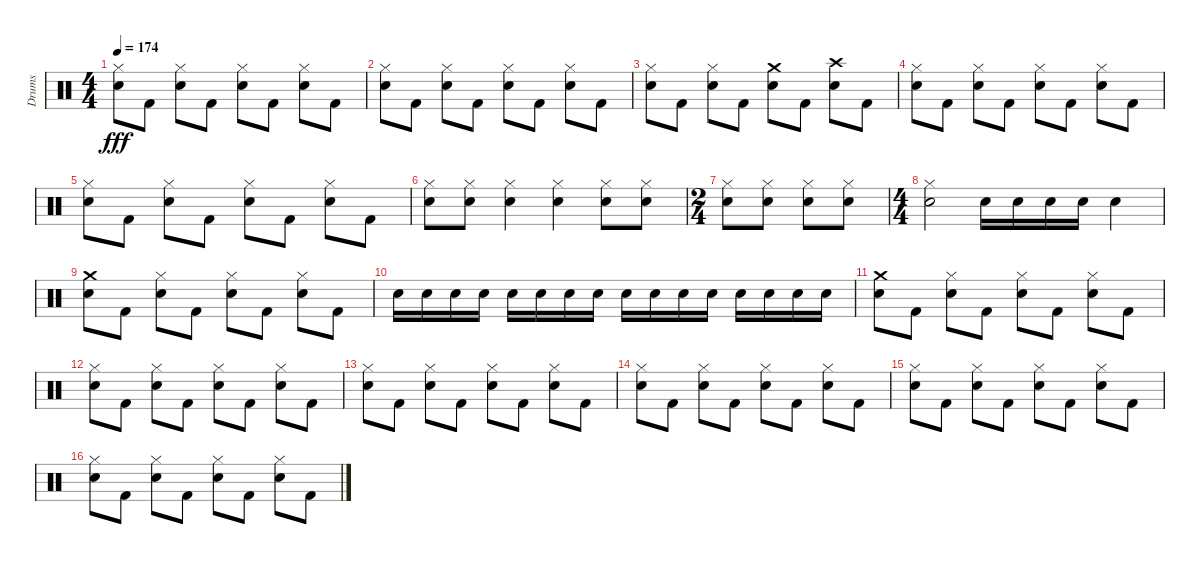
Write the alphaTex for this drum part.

\track ("Drums" "Drums") {instrument percussion}
\staff {score}
\articulation defaults
\ts (4 4)
\tempo 174
\clef neutral
\ks c
("Hi-Hat (closed)" "Electric Snare (hit)").8{dy fff} "Kick (hit) 2".8 ("Hi-Hat (closed)" "Electric Snare (hit)").8 "Kick (hit) 2".8 ("Hi-Hat (closed)" "Electric Snare (hit)").8 "Kick (hit) 2".8 ("Hi-Hat (closed)" "Electric Snare (hit)").8 "Kick (hit) 2".8 |
("Hi-Hat (closed)" "Electric Snare (hit)").8 "Kick (hit) 2".8 ("Hi-Hat (closed)" "Electric Snare (hit)").8 "Kick (hit) 2".8 ("Hi-Hat (closed)" "Electric Snare (hit)").8 "Kick (hit) 2".8 ("Hi-Hat (closed)" "Electric Snare (hit)").8 "Kick (hit) 2".8 |
("Hi-Hat (closed)" "Electric Snare (hit)").8 "Kick (hit) 2".8 ("Hi-Hat (closed)" "Electric Snare (hit)").8 "Kick (hit) 2".8 ("Crash medium (hit)" "Electric Snare (hit)").8 "Kick (hit) 2".8 ("Crash high (hit)" "Electric Snare (hit)").8 "Kick (hit) 2".8 |
("Hi-Hat (closed)" "Electric Snare (hit)").8 "Kick (hit) 2".8 ("Hi-Hat (closed)" "Electric Snare (hit)").8 "Kick (hit) 2".8 ("Hi-Hat (closed)" "Electric Snare (hit)").8 "Kick (hit) 2".8 ("Hi-Hat (closed)" "Electric Snare (hit)").8 "Kick (hit) 2".8 |
("Hi-Hat (closed)" "Electric Snare (hit)").8 "Kick (hit) 2".8 ("Hi-Hat (closed)" "Electric Snare (hit)").8 "Kick (hit) 2".8 ("Hi-Hat (closed)" "Electric Snare (hit)").8 "Kick (hit) 2".8 ("Hi-Hat (closed)" "Electric Snare (hit)").8 "Kick (hit) 2".8 |
("Hi-Hat (closed)" "Electric Snare (hit)").8 ("Hi-Hat (closed)" "Electric Snare (hit)").8 ("Hi-Hat (closed)" "Electric Snare (hit)").4 ("Hi-Hat (closed)" "Electric Snare (hit)").4 ("Hi-Hat (closed)" "Electric Snare (hit)").8 ("Hi-Hat (closed)" "Electric Snare (hit)").8 |
\ts (2 4)
("Hi-Hat (closed)" "Electric Snare (hit)").8 ("Hi-Hat (closed)" "Electric Snare (hit)").8 ("Hi-Hat (closed)" "Electric Snare (hit)").8 ("Hi-Hat (closed)" "Electric Snare (hit)").8 |
\ts (4 4)
("Hi-Hat (closed)" "Electric Snare (hit)").2 "Electric Snare (hit)".16 "Electric Snare (hit)".16 "Electric Snare (hit)".16 "Electric Snare (hit)".16 "Electric Snare (hit)".4 |
("Crash medium (hit)" "Electric Snare (hit)").8 "Kick (hit) 2".8 ("Hi-Hat (closed)" "Electric Snare (hit)").8 "Kick (hit) 2".8 ("Hi-Hat (closed)" "Electric Snare (hit)").8 "Kick (hit) 2".8 ("Hi-Hat (closed)" "Electric Snare (hit)").8 "Kick (hit) 2".8 |
"Electric Snare (hit)".16 "Electric Snare (hit)".16 "Electric Snare (hit)".16 "Electric Snare (hit)".16 "Electric Snare (hit)".16 "Electric Snare (hit)".16 "Electric Snare (hit)".16 "Electric Snare (hit)".16 "Electric Snare (hit)".16 "Electric Snare (hit)".16 "Electric Snare (hit)".16 "Electric Snare (hit)".16 "Electric Snare (hit)".16 "Electric Snare (hit)".16 "Electric Snare (hit)".16 "Electric Snare (hit)".16 |
("Crash medium (hit)" "Electric Snare (hit)").8 "Kick (hit) 2".8 ("Hi-Hat (closed)" "Electric Snare (hit)").8 "Kick (hit) 2".8 ("Hi-Hat (closed)" "Electric Snare (hit)").8 "Kick (hit) 2".8 ("Hi-Hat (closed)" "Electric Snare (hit)").8 "Kick (hit) 2".8 |
("Hi-Hat (closed)" "Electric Snare (hit)").8 "Kick (hit) 2".8 ("Hi-Hat (closed)" "Electric Snare (hit)").8 "Kick (hit) 2".8 ("Hi-Hat (closed)" "Electric Snare (hit)").8 "Kick (hit) 2".8 ("Hi-Hat (closed)" "Electric Snare (hit)").8 "Kick (hit) 2".8 |
("Hi-Hat (closed)" "Electric Snare (hit)").8 "Kick (hit) 2".8 ("Hi-Hat (closed)" "Electric Snare (hit)").8 "Kick (hit) 2".8 ("Hi-Hat (closed)" "Electric Snare (hit)").8 "Kick (hit) 2".8 ("Hi-Hat (closed)" "Electric Snare (hit)").8 "Kick (hit) 2".8 |
("Hi-Hat (closed)" "Electric Snare (hit)").8 "Kick (hit) 2".8 ("Hi-Hat (closed)" "Electric Snare (hit)").8 "Kick (hit) 2".8 ("Hi-Hat (closed)" "Electric Snare (hit)").8 "Kick (hit) 2".8 ("Hi-Hat (closed)" "Electric Snare (hit)").8 "Kick (hit) 2".8 |
("Hi-Hat (closed)" "Electric Snare (hit)").8 "Kick (hit) 2".8 ("Hi-Hat (closed)" "Electric Snare (hit)").8 "Kick (hit) 2".8 ("Hi-Hat (closed)" "Electric Snare (hit)").8 "Kick (hit) 2".8 ("Hi-Hat (closed)" "Electric Snare (hit)").8 "Kick (hit) 2".8 |
("Hi-Hat (closed)" "Electric Snare (hit)").8 "Kick (hit) 2".8 ("Hi-Hat (closed)" "Electric Snare (hit)").8 "Kick (hit) 2".8 ("Hi-Hat (closed)" "Electric Snare (hit)").8 "Kick (hit) 2".8 ("Hi-Hat (closed)" "Electric Snare (hit)").8 "Kick (hit) 2".8
